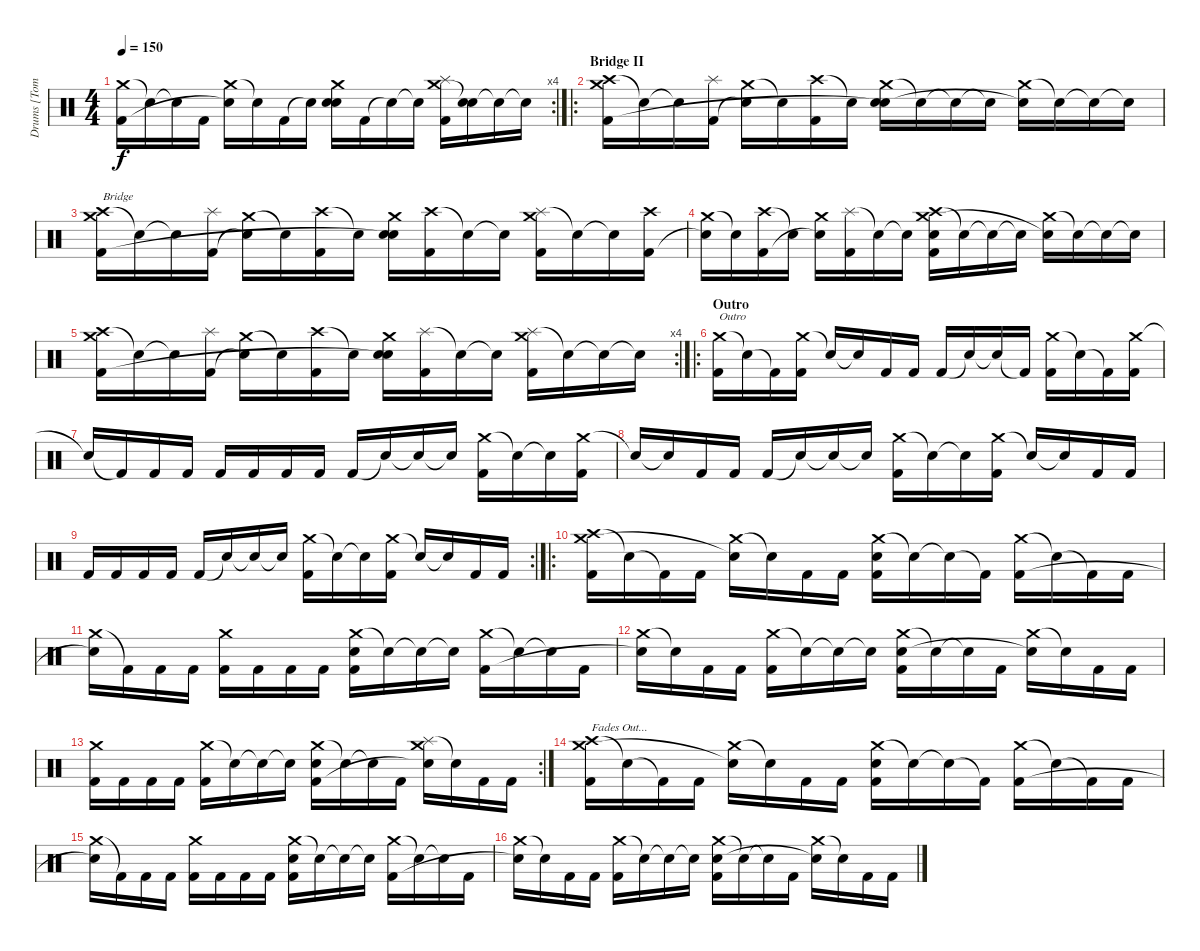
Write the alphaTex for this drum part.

\track ("Drums [Tomas Haake]" "Drums [Tom") {instrument percussion}
\staff {score}
\articulation defaults
\rc 4
\ts (4 4)
\tempo 150
\clef neutral
\ks c
("Crash medium (hit)" "Kick (hit) 2").16{dy f} "Snare (hit)"{t}.16 "Snare (hit)"{t}.16 "Kick (hit) 2".16 ("Crash medium (hit)" "Snare (hit)"{t}).16 "Snare (hit)"{t}.16 "Kick (hit) 2".16 "Snare (hit)"{t}.16 ("Crash medium (hit)" "Electric Snare (hit)" "Snare (hit)"{t}).16 "Kick (hit) 2".16 "Snare (hit)"{t}.16 "Snare (hit)"{t}.16 ("Splash (hit)" "Crash medium (hit)" "Kick (hit) 2").16 ("Electric Snare (hit)" "Snare (hit)"{t}).16 "Snare (hit)"{t}.16 "Snare (hit)"{t}.16 |
\ro
\section ("" "Bridge II")
("Crash high (hit)" "Crash medium (hit)" "Kick (hit) 2").16 "Snare (hit)"{t}.16 "Snare (hit)"{t}.16 ("Splash (hit)" "Kick (hit) 2").16 ("Crash medium (hit)" "Snare (hit)"{t}).16 "Snare (hit)"{t}.16 ("Crash high (hit)" "Kick (hit) 2").16 "Snare (hit)"{t}.16 ("Crash medium (hit)" "Electric Snare (hit)" "Snare (hit)"{t}).16 "Snare (hit)"{t}.16 "Snare (hit)"{t}.16 "Snare (hit)"{t}.16 ("Crash medium (hit)" "Snare (hit)"{t}).16 "Snare (hit)"{t}.16 "Snare (hit)"{t}.16 "Snare (hit)"{t}.16 |
("Crash high (hit)" "Crash medium (hit)" "Kick (hit) 2").16{txt "Bridge"} "Snare (hit)"{t}.16 "Snare (hit)"{t}.16 ("Splash (hit)" "Kick (hit) 2").16 ("Crash medium (hit)" "Snare (hit)"{t}).16 "Snare (hit)"{t}.16 ("Crash high (hit)" "Kick (hit) 2").16 "Snare (hit)"{t}.16 ("Crash medium (hit)" "Electric Snare (hit)" "Snare (hit)"{t}).16 ("Crash high (hit)" "Kick (hit) 2").16 "Snare (hit)"{t}.16 "Snare (hit)"{t}.16 ("Splash (hit)" "Crash medium (hit)" "Kick (hit) 2").16 "Snare (hit)"{t}.16 "Snare (hit)"{t}.16 ("Crash high (hit)" "Kick (hit) 2").16 |
("Crash medium (hit)" "Snare (hit)"{t}).16 "Snare (hit)"{t}.16 ("Crash high (hit)" "Kick (hit) 2").16 "Snare (hit)"{t}.16 ("Crash medium (hit)" "Snare (hit)"{t}).16 ("Splash (hit)" "Kick (hit) 2").16 "Snare (hit)"{t}.16 "Snare (hit)"{t}.16 ("Crash high (hit)" "Crash medium (hit)" "Electric Snare (hit)" "Kick (hit) 2").16 "Snare (hit)"{t}.16 "Snare (hit)"{t}.16 "Snare (hit)"{t}.16 ("Crash medium (hit)" "Snare (hit)"{t}).16 "Snare (hit)"{t}.16 "Snare (hit)"{t}.16 "Snare (hit)"{t}.16 |
\rc 4
("Crash high (hit)" "Crash medium (hit)" "Kick (hit) 2").16 "Snare (hit)"{t}.16 "Snare (hit)"{t}.16 ("Splash (hit)" "Kick (hit) 2").16 ("Crash medium (hit)" "Snare (hit)"{t}).16 "Snare (hit)"{t}.16 ("Crash high (hit)" "Kick (hit) 2").16 "Snare (hit)"{t}.16 ("Crash medium (hit)" "Electric Snare (hit)" "Snare (hit)"{t}).16 ("Splash (hit)" "Kick (hit) 2").16 "Snare (hit)"{t}.16 "Snare (hit)"{t}.16 ("Splash (hit)" "Crash medium (hit)" "Kick (hit) 2").16 "Snare (hit)"{t}.16 "Snare (hit)"{t}.16 "Snare (hit)"{t}.16 |
\ro
\section ("" "Outro")
("Crash medium (hit)" "Kick (hit) 2").16{txt "Outro"} "Snare (hit)"{t}.16 "Kick (hit) 2"{t}.16 ("Crash medium (hit)" "Kick (hit) 2").16 "Snare (hit)"{t}.16 "Snare (hit)"{t}.16 "Kick (hit) 2".16 "Kick (hit) 2".16 "Kick (hit) 2".16 "Snare (hit)"{t}.16 "Snare (hit)"{t}.16 "Kick (hit) 2"{t}.16 ("Crash medium (hit)" "Kick (hit) 2").16 "Snare (hit)"{t}.16 "Kick (hit) 2"{t}.16 ("Crash medium (hit)" "Kick (hit) 2").16 |
"Snare (hit)"{t}.16 "Kick (hit) 2"{t}.16 "Kick (hit) 2".16 "Kick (hit) 2".16 "Kick (hit) 2".16 "Kick (hit) 2".16 "Kick (hit) 2".16 "Kick (hit) 2".16 "Kick (hit) 2".16 "Snare (hit)"{t}.16 "Snare (hit)"{t}.16 "Snare (hit)"{t}.16 ("Crash medium (hit)" "Kick (hit) 2").16 "Snare (hit)"{t}.16 "Snare (hit)"{t}.16 ("Crash medium (hit)" "Kick (hit) 2").16 |
"Snare (hit)"{t}.16 "Snare (hit)"{t}.16 "Kick (hit) 2".16 "Kick (hit) 2".16 "Kick (hit) 2".16 "Snare (hit)"{t}.16 "Snare (hit)"{t}.16 "Snare (hit)"{t}.16 ("Crash medium (hit)" "Kick (hit) 2").16 "Snare (hit)"{t}.16 "Snare (hit)"{t}.16 ("Crash medium (hit)" "Kick (hit) 2").16 "Snare (hit)"{t}.16 "Snare (hit)"{t}.16 "Kick (hit) 2".16 "Kick (hit) 2".16 |
\rc 2 "Kick (hit) 2".16 "Kick (hit) 2".16 "Kick (hit) 2".16 "Kick (hit) 2".16 "Kick (hit) 2".16 "Snare (hit)"{t}.16 "Snare (hit)"{t}.16 "Snare (hit)"{t}.16
("Crash medium (hit)" "Kick (hit) 2").16 "Snare (hit)"{t}.16 "Snare (hit)"{t}.16 ("Crash medium (hit)" "Kick (hit) 2").16 "Snare (hit)"{t}.16 "Snare (hit)"{t}.16 "Kick (hit) 2".16 "Kick (hit) 2".16 |
\ro
("Crash high (hit)" "Crash medium (hit)" "Kick (hit) 2").16 "Snare (hit)"{t}.16 "Kick (hit) 2"{t}.16 "Kick (hit) 2".16 ("Crash medium (hit)" "Snare (hit)"{t}).16 "Snare (hit)"{t}.16 "Kick (hit) 2".16 "Kick (hit) 2".16 ("Crash medium (hit)" "Electric Snare (hit)" "Kick (hit) 2").16 "Snare (hit)"{t}.16 "Snare (hit)"{t}.16 "Kick (hit) 2"{t}.16 ("Crash medium (hit)" "Kick (hit) 2").16 "Snare (hit)"{t}.16 "Kick (hit) 2"{t}.16 "Kick (hit) 2".16 |
("Crash medium (hit)" "Snare (hit)"{t}).16 "Kick (hit) 2"{t}.16 "Kick (hit) 2".16 "Kick (hit) 2".16 ("Crash medium (hit)" "Kick (hit) 2").16 "Kick (hit) 2".16 "Kick (hit) 2".16 "Kick (hit) 2".16 ("Crash medium (hit)" "Electric Snare (hit)" "Kick (hit) 2").16 "Snare (hit)"{t}.16 "Snare (hit)"{t}.16 "Snare (hit)"{t}.16 ("Crash medium (hit)" "Kick (hit) 2").16 "Snare (hit)"{t}.16 "Snare (hit)"{t}.16 "Kick (hit) 2".16 |
("Crash medium (hit)" "Snare (hit)"{t}).16 "Snare (hit)"{t}.16 "Kick (hit) 2".16 "Kick (hit) 2".16 ("Crash medium (hit)" "Kick (hit) 2").16 "Snare (hit)"{t}.16 "Snare (hit)"{t}.16 "Snare (hit)"{t}.16 ("Crash medium (hit)" "Electric Snare (hit)" "Kick (hit) 2").16 "Snare (hit)"{t}.16 "Snare (hit)"{t}.16 "Kick (hit) 2".16 ("Crash medium (hit)" "Snare (hit)"{t}).16 "Snare (hit)"{t}.16 "Kick (hit) 2".16 "Kick (hit) 2".16 |
\rc 2
("Crash medium (hit)" "Kick (hit) 2").16 "Kick (hit) 2".16 "Kick (hit) 2".16 "Kick (hit) 2".16 ("Crash medium (hit)" "Kick (hit) 2").16 "Snare (hit)"{t}.16 "Snare (hit)"{t}.16 "Snare (hit)"{t}.16 ("Crash medium (hit)" "Electric Snare (hit)" "Kick (hit) 2").16 "Snare (hit)"{t}.16 "Snare (hit)"{t}.16 "Kick (hit) 2".16 ("Splash (hit)" "Crash medium (hit)" "Snare (hit)"{t}).16 "Snare (hit)"{t}.16 "Kick (hit) 2".16 "Kick (hit) 2".16 |
("Crash high (hit)" "Crash medium (hit)" "Kick (hit) 2").16{txt "Fades Out..."} "Snare (hit)"{t}.16 "Kick (hit) 2"{t}.16 "Kick (hit) 2".16 ("Crash medium (hit)" "Snare (hit)"{t}).16 "Snare (hit)"{t}.16 "Kick (hit) 2".16 "Kick (hit) 2".16 ("Crash medium (hit)" "Electric Snare (hit)" "Kick (hit) 2").16 "Snare (hit)"{t}.16 "Snare (hit)"{t}.16 "Kick (hit) 2"{t}.16 ("Crash medium (hit)" "Kick (hit) 2").16 "Snare (hit)"{t}.16 "Kick (hit) 2"{t}.16 "Kick (hit) 2".16 |
("Crash medium (hit)" "Snare (hit)"{t}).16 "Kick (hit) 2"{t}.16 "Kick (hit) 2".16 "Kick (hit) 2".16 ("Crash medium (hit)" "Kick (hit) 2").16 "Kick (hit) 2".16 "Kick (hit) 2".16 "Kick (hit) 2".16 ("Crash medium (hit)" "Electric Snare (hit)" "Kick (hit) 2").16 "Snare (hit)"{t}.16 "Snare (hit)"{t}.16 "Snare (hit)"{t}.16 ("Crash medium (hit)" "Kick (hit) 2").16 "Snare (hit)"{t}.16 "Snare (hit)"{t}.16 "Kick (hit) 2".16 |
("Crash medium (hit)" "Snare (hit)"{t}).16 "Snare (hit)"{t}.16 "Kick (hit) 2".16 "Kick (hit) 2".16 ("Crash medium (hit)" "Kick (hit) 2").16 "Snare (hit)"{t}.16 "Snare (hit)"{t}.16 "Snare (hit)"{t}.16 ("Crash medium (hit)" "Electric Snare (hit)" "Kick (hit) 2").16 "Snare (hit)"{t}.16 "Snare (hit)"{t}.16 "Kick (hit) 2".16 ("Crash medium (hit)" "Snare (hit)"{t}).16 "Snare (hit)"{t}.16 "Kick (hit) 2".16 "Kick (hit) 2".16
